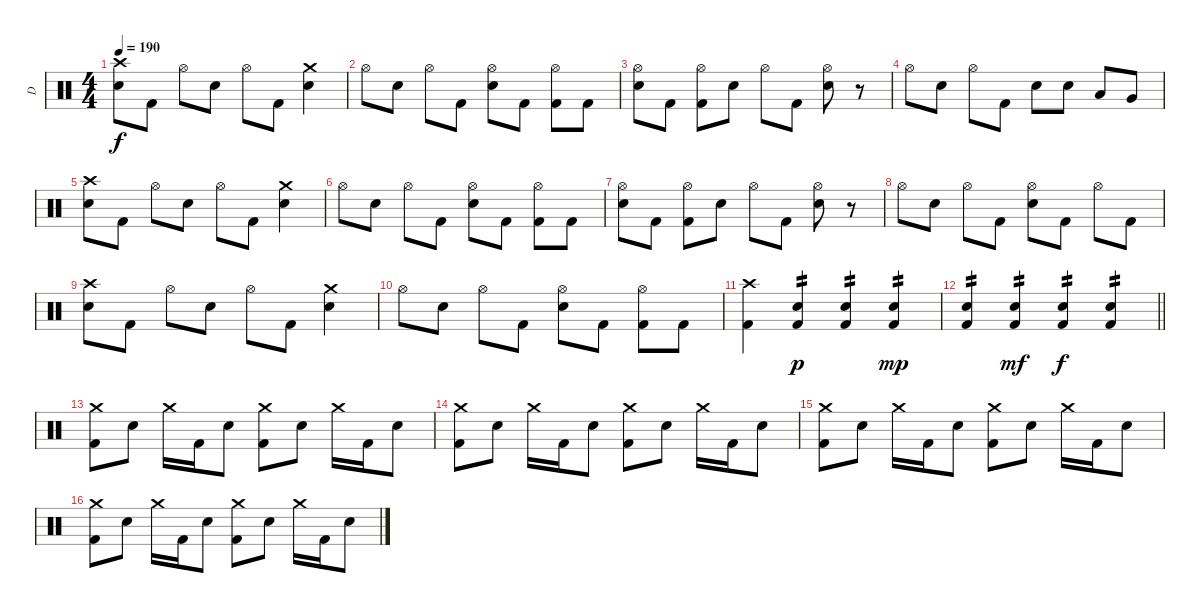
\track ("D" "D") {instrument percussion}
\staff {score}
\articulation defaults
\ts (4 4)
\tempo 190
\clef neutral
\ks c
("Crash high (hit)" "Electric Snare (hit)").8{dy f} "Kick (hit) 2".8 "Hi-Hat (open)".8 "Electric Snare (hit)".8 "Hi-Hat (open)".8 "Kick (hit) 2".8 ("Crash medium (hit)" "Electric Snare (hit)").4 |
"Hi-Hat (open)".8 "Electric Snare (hit)".8 "Hi-Hat (open)".8 "Kick (hit) 2".8 ("Hi-Hat (open)" "Electric Snare (hit)").8 "Kick (hit) 2".8 ("Hi-Hat (open)" "Kick (hit) 2").8 "Kick (hit) 2".8 |
("Hi-Hat (open)" "Electric Snare (hit)").8 "Kick (hit) 2".8 ("Hi-Hat (open)" "Kick (hit) 2").8 "Electric Snare (hit)".8 "Hi-Hat (open)".8 "Kick (hit) 2".8 ("Hi-Hat (open)" "Electric Snare (hit)").8 r.8 |
"Hi-Hat (open)".8 "Electric Snare (hit)".8 "Hi-Hat (open)".8 "Kick (hit) 2".8 "Electric Snare (hit)".8 "Electric Snare (hit)".8 "Low Tom (hit)".8 "Very Low Tom (hit)".8 |
("Crash high (hit)" "Electric Snare (hit)").8 "Kick (hit) 2".8 "Hi-Hat (open)".8 "Electric Snare (hit)".8 "Hi-Hat (open)".8 "Kick (hit) 2".8 ("Crash medium (hit)" "Electric Snare (hit)").4 |
"Hi-Hat (open)".8 "Electric Snare (hit)".8 "Hi-Hat (open)".8 "Kick (hit) 2".8 ("Hi-Hat (open)" "Electric Snare (hit)").8 "Kick (hit) 2".8 ("Hi-Hat (open)" "Kick (hit) 2").8 "Kick (hit) 2".8 |
("Hi-Hat (open)" "Electric Snare (hit)").8 "Kick (hit) 2".8 ("Hi-Hat (open)" "Kick (hit) 2").8 "Electric Snare (hit)".8 "Hi-Hat (open)".8 "Kick (hit) 2".8 ("Hi-Hat (open)" "Electric Snare (hit)").8 r.8 |
"Hi-Hat (open)".8 "Electric Snare (hit)".8 "Hi-Hat (open)".8 "Kick (hit) 2".8 ("Hi-Hat (open)" "Electric Snare (hit)").8 "Kick (hit) 2".8 "Hi-Hat (open)".8 "Kick (hit) 2".8 |
("Crash high (hit)" "Electric Snare (hit)").8 "Kick (hit) 2".8 "Hi-Hat (open)".8 "Electric Snare (hit)".8 "Hi-Hat (open)".8 "Kick (hit) 2".8 ("Crash medium (hit)" "Electric Snare (hit)").4 |
"Hi-Hat (open)".8 "Electric Snare (hit)".8 "Hi-Hat (open)".8 "Kick (hit) 2".8 ("Hi-Hat (open)" "Electric Snare (hit)").8 "Kick (hit) 2".8 ("Hi-Hat (open)" "Kick (hit) 2").8 "Kick (hit) 2".8 |
("Crash high (hit)" "Kick (hit) 2").4 ("Electric Snare (hit)" "Kick (hit) 2").4{tp 2 dy p} ("Electric Snare (hit)" "Kick (hit) 2").4{tp 2} ("Electric Snare (hit)" "Kick (hit) 2").4{tp 2 dy mp} |
\barLineRight lightlight
("Electric Snare (hit)" "Kick (hit) 2").4{tp 2} ("Electric Snare (hit)" "Kick (hit) 2").4{tp 2 dy mf} ("Electric Snare (hit)" "Kick (hit) 2").4{tp 2 dy f} ("Electric Snare (hit)" "Kick (hit) 2").4{tp 2} |
\section ("" "")
("Crash medium (hit)" "Kick (hit) 2").8 "Electric Snare (hit)".8 "Crash medium (hit)".16 "Kick (hit) 2".16 "Electric Snare (hit)".8 ("Crash medium (hit)" "Kick (hit) 2").8 "Electric Snare (hit)".8 "Crash medium (hit)".16 "Kick (hit) 2".16 "Electric Snare (hit)".8 |
("Crash medium (hit)" "Kick (hit) 2").8 "Electric Snare (hit)".8 "Crash medium (hit)".16 "Kick (hit) 2".16 "Electric Snare (hit)".8 ("Crash medium (hit)" "Kick (hit) 2").8 "Electric Snare (hit)".8 "Crash medium (hit)".16 "Kick (hit) 2".16 "Electric Snare (hit)".8 |
("Crash medium (hit)" "Kick (hit) 2").8 "Electric Snare (hit)".8 "Crash medium (hit)".16 "Kick (hit) 2".16 "Electric Snare (hit)".8 ("Crash medium (hit)" "Kick (hit) 2").8 "Electric Snare (hit)".8 "Crash medium (hit)".16 "Kick (hit) 2".16 "Electric Snare (hit)".8 |
("Crash medium (hit)" "Kick (hit) 2").8 "Electric Snare (hit)".8 "Crash medium (hit)".16 "Kick (hit) 2".16 "Electric Snare (hit)".8 ("Crash medium (hit)" "Kick (hit) 2").8 "Electric Snare (hit)".8 "Crash medium (hit)".16 "Kick (hit) 2".16 "Electric Snare (hit)".8
